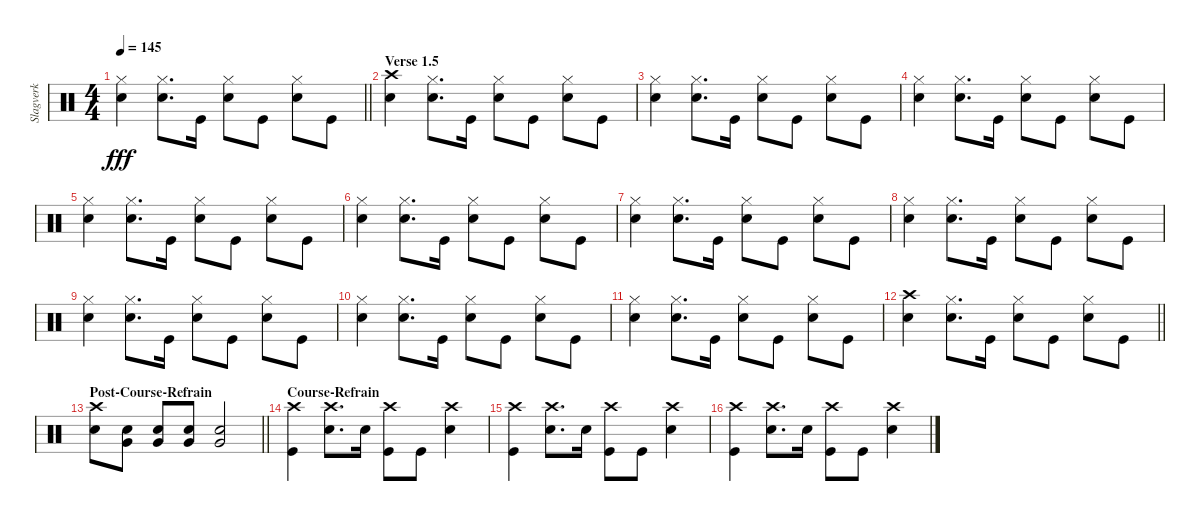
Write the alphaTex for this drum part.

\track ("Slagverk" "Slagverk") {instrument percussion}
\staff {score}
\articulation defaults
\ts (4 4)
\tempo 145
\clef neutral
\barLineRight lightlight
\ks c
("Snare (hit) 2" "Hi-Hat (closed)").4{dy fff} ("Snare (hit) 2" "Hi-Hat (closed)").8{d} "Kick (hit)".16 ("Snare (hit) 2" "Hi-Hat (closed)").8 "Kick (hit)".8 ("Snare (hit) 2" "Hi-Hat (closed)").8 "Kick (hit)".8 |
\section ("" "Verse 1.5")
("Snare (hit) 2" "Crash high (hit)").4 ("Snare (hit) 2" "Hi-Hat (closed)").8{d} "Kick (hit)".16 ("Snare (hit) 2" "Hi-Hat (closed)").8 "Kick (hit)".8 ("Snare (hit) 2" "Hi-Hat (closed)").8 "Kick (hit)".8 |
("Snare (hit) 2" "Hi-Hat (closed)").4 ("Snare (hit) 2" "Hi-Hat (closed)").8{d} "Kick (hit)".16 ("Snare (hit) 2" "Hi-Hat (closed)").8 "Kick (hit)".8 ("Snare (hit) 2" "Hi-Hat (closed)").8 "Kick (hit)".8 |
("Snare (hit) 2" "Hi-Hat (closed)").4 ("Snare (hit) 2" "Hi-Hat (closed)").8{d} "Kick (hit)".16 ("Snare (hit) 2" "Hi-Hat (closed)").8 "Kick (hit)".8 ("Snare (hit) 2" "Hi-Hat (closed)").8 "Kick (hit)".8 |
("Snare (hit) 2" "Hi-Hat (closed)").4 ("Snare (hit) 2" "Hi-Hat (closed)").8{d} "Kick (hit)".16 ("Snare (hit) 2" "Hi-Hat (closed)").8 "Kick (hit)".8 ("Snare (hit) 2" "Hi-Hat (closed)").8 "Kick (hit)".8 |
("Snare (hit) 2" "Hi-Hat (closed)").4 ("Snare (hit) 2" "Hi-Hat (closed)").8{d} "Kick (hit)".16 ("Snare (hit) 2" "Hi-Hat (closed)").8 "Kick (hit)".8 ("Snare (hit) 2" "Hi-Hat (closed)").8 "Kick (hit)".8 |
("Snare (hit) 2" "Hi-Hat (closed)").4 ("Snare (hit) 2" "Hi-Hat (closed)").8{d} "Kick (hit)".16 ("Snare (hit) 2" "Hi-Hat (closed)").8 "Kick (hit)".8 ("Snare (hit) 2" "Hi-Hat (closed)").8 "Kick (hit)".8 |
("Snare (hit) 2" "Hi-Hat (closed)").4 ("Snare (hit) 2" "Hi-Hat (closed)").8{d} "Kick (hit)".16 ("Snare (hit) 2" "Hi-Hat (closed)").8 "Kick (hit)".8 ("Snare (hit) 2" "Hi-Hat (closed)").8 "Kick (hit)".8 |
("Snare (hit) 2" "Hi-Hat (closed)").4 ("Snare (hit) 2" "Hi-Hat (closed)").8{d} "Kick (hit)".16 ("Snare (hit) 2" "Hi-Hat (closed)").8 "Kick (hit)".8 ("Snare (hit) 2" "Hi-Hat (closed)").8 "Kick (hit)".8 |
("Snare (hit) 2" "Hi-Hat (closed)").4 ("Snare (hit) 2" "Hi-Hat (closed)").8{d} "Kick (hit)".16 ("Snare (hit) 2" "Hi-Hat (closed)").8 "Kick (hit)".8 ("Snare (hit) 2" "Hi-Hat (closed)").8 "Kick (hit)".8 |
("Snare (hit) 2" "Hi-Hat (closed)").4 ("Snare (hit) 2" "Hi-Hat (closed)").8{d} "Kick (hit)".16 ("Snare (hit) 2" "Hi-Hat (closed)").8 "Kick (hit)".8 ("Snare (hit) 2" "Hi-Hat (closed)").8 "Kick (hit)".8 |
\barLineRight lightlight
("Snare (hit) 2" "Crash high (hit)").4 ("Snare (hit) 2" "Hi-Hat (closed)").8{d} "Kick (hit)".16 ("Snare (hit) 2" "Hi-Hat (closed)").8 "Kick (hit)".8 ("Snare (hit) 2" "Hi-Hat (closed)").8 "Kick (hit)".8 |
\section ("" "Post-Course-Refrain")
\barLineRight lightlight
("Snare (hit) 2" "Crash high (hit)").8 ("Very Low Tom (hit)" "Snare (hit) 2").8 ("Very Low Tom (hit)" "Snare (hit) 2").8 ("Very Low Tom (hit)" "Snare (hit) 2").8 ("Very Low Tom (hit)" "Snare (hit) 2").2 |
\section ("" "Course-Refrain")
("Crash high (hit)" "Kick (hit)").4 ("Crash high (hit)" "Snare (hit) 2").8{d} "Snare (hit) 2".16 ("Crash high (hit)" "Kick (hit)").8 "Kick (hit)".8 ("Crash high (hit)" "Snare (hit) 2").4 |
("Crash high (hit)" "Kick (hit)").4 ("Crash high (hit)" "Snare (hit) 2").8{d} "Snare (hit) 2".16 ("Crash high (hit)" "Kick (hit)").8 "Kick (hit)".8 ("Crash high (hit)" "Snare (hit) 2").4 |
("Crash high (hit)" "Kick (hit)").4 ("Crash high (hit)" "Snare (hit) 2").8{d} "Snare (hit) 2".16 ("Crash high (hit)" "Kick (hit)").8 "Kick (hit)".8 ("Crash high (hit)" "Snare (hit) 2").4
